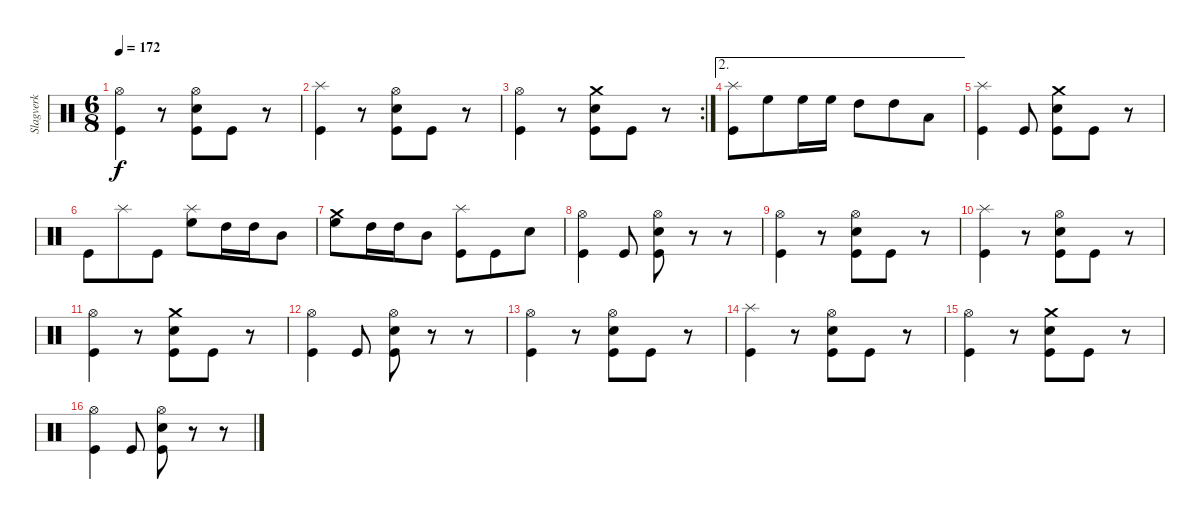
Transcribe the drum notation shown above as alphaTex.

\track ("Slagverk" "Slagverk") {instrument percussion}
\staff {score}
\articulation defaults
\ts (6 8)
\tempo 172
\clef neutral
\ks c
("Hi-Hat (open)" "Kick (hit)").4{dy f} r.8 ("Hi-Hat (open)" "Snare (hit) 2" "Kick (hit)").8 "Kick (hit)".8 r.8 |
("Splash (hit)" "Kick (hit)").4 r.8 ("Hi-Hat (open)" "Snare (hit) 2" "Kick (hit)").8 "Kick (hit)".8 r.8 |
\rc 2
("Hi-Hat (open)" "Kick (hit)").4 r.8 ("Crash medium (hit)" "Snare (hit) 2" "Kick (hit)").8 "Kick (hit)".8 r.8 |
\ae 2
("Splash (hit)" "Kick (hit)").8 "High Floor Tom (hit)".8 "High Floor Tom (hit)".16 "High Floor Tom (hit)".16 "High Tom (hit)".8 "High Tom (hit)".8 "Low Tom (hit)".8 |
("Splash (hit)" "Kick (hit)").4 "Kick (hit)".8 ("Crash medium (hit)" "Snare (hit) 2" "Kick (hit)").8 "Kick (hit)".8 r.8 |
"Kick (hit)".8 "Splash (hit)".8 "Kick (hit)".8 ("Splash (hit)" "High Floor Tom (hit)").8 "High Tom (hit)".16 "High Tom (hit)".16 "Mid Tom (hit)".8 |
("Crash medium (hit)" "High Floor Tom (hit)").8 "High Tom (hit)".16 "High Tom (hit)".16 "Mid Tom (hit)".8 ("Splash (hit)" "Kick (hit)").8 "Kick (hit)".8 "Snare (hit) 2".8 |
("Hi-Hat (open)" "Kick (hit)").4 "Kick (hit)".8 ("Hi-Hat (open)" "Snare (hit) 2" "Kick (hit)").8 r.8 r.8 |
("Hi-Hat (open)" "Kick (hit)").4 r.8 ("Hi-Hat (open)" "Snare (hit) 2" "Kick (hit)").8 "Kick (hit)".8 r.8 |
("Splash (hit)" "Kick (hit)").4 r.8 ("Hi-Hat (open)" "Snare (hit) 2" "Kick (hit)").8 "Kick (hit)".8 r.8 |
("Hi-Hat (open)" "Kick (hit)").4 r.8 ("Crash medium (hit)" "Snare (hit) 2" "Kick (hit)").8 "Kick (hit)".8 r.8 |
("Hi-Hat (open)" "Kick (hit)").4 "Kick (hit)".8 ("Hi-Hat (open)" "Snare (hit) 2" "Kick (hit)").8 r.8 r.8 |
("Hi-Hat (open)" "Kick (hit)").4 r.8 ("Hi-Hat (open)" "Snare (hit) 2" "Kick (hit)").8 "Kick (hit)".8 r.8 |
("Splash (hit)" "Kick (hit)").4 r.8 ("Hi-Hat (open)" "Snare (hit) 2" "Kick (hit)").8 "Kick (hit)".8 r.8 |
("Hi-Hat (open)" "Kick (hit)").4 r.8 ("Crash medium (hit)" "Snare (hit) 2" "Kick (hit)").8 "Kick (hit)".8 r.8 |
("Hi-Hat (open)" "Kick (hit)").4 "Kick (hit)".8 ("Hi-Hat (open)" "Snare (hit) 2" "Kick (hit)").8 r.8 r.8
